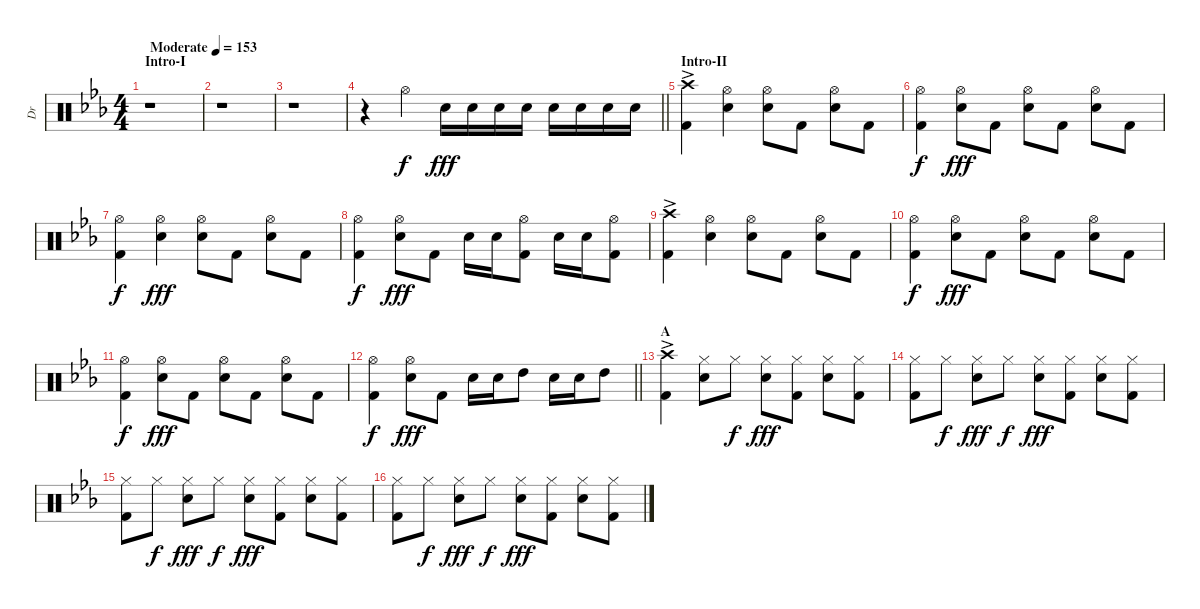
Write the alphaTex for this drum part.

\track ("Dr" "Dr") {instrument percussion}
\staff {score}
\articulation defaults
\ts (4 4)
\section ("" "Intro-I")
\tempo (153 "Moderate")
\clef neutral
\ks cminor
r.1{dy f volume 16} |
r.1 |
r.1 |
\barLineRight lightlight
r.4 "Hi-Hat (open)".4 "Electric Snare (hit)".16{dy fff} "Electric Snare (hit)".16 "Electric Snare (hit)".16 "Electric Snare (hit)".16 "Electric Snare (hit)".16 "Electric Snare (hit)".16 "Electric Snare (hit)".16 "Electric Snare (hit)".16 |
\section ("" "Intro-II")
("Crash high (hit)"{ac} "Kick (hit) 2"{ac}).4 ("Hi-Hat (open)" "Electric Snare (hit)").4 ("Hi-Hat (open)" "Electric Snare (hit)").8 "Kick (hit) 2".8 ("Hi-Hat (open)" "Electric Snare (hit)").8 "Kick (hit) 2".8 |
("Hi-Hat (open)" "Kick (hit) 2").4{dy f} ("Hi-Hat (open)" "Electric Snare (hit)").8{dy fff} "Kick (hit) 2".8 ("Hi-Hat (open)" "Electric Snare (hit)").8 "Kick (hit) 2".8 ("Hi-Hat (open)" "Electric Snare (hit)").8 "Kick (hit) 2".8 |
("Hi-Hat (open)" "Kick (hit) 2").4{dy f} ("Hi-Hat (open)" "Electric Snare (hit)").4{dy fff} ("Hi-Hat (open)" "Electric Snare (hit)").8 "Kick (hit) 2".8 ("Hi-Hat (open)" "Electric Snare (hit)").8 "Kick (hit) 2".8 |
("Hi-Hat (open)" "Kick (hit) 2").4{dy f} ("Hi-Hat (open)" "Electric Snare (hit)").8{dy fff} "Kick (hit) 2".8 "Electric Snare (hit)".16 "Electric Snare (hit)".16 ("Hi-Hat (open)" "Kick (hit) 2").8 "Electric Snare (hit)".16 "Electric Snare (hit)".16 ("Hi-Hat (open)" "Kick (hit) 2").8 |
("Crash high (hit)"{ac} "Kick (hit) 2"{ac}).4 ("Hi-Hat (open)" "Electric Snare (hit)").4 ("Hi-Hat (open)" "Electric Snare (hit)").8 "Kick (hit) 2".8 ("Hi-Hat (open)" "Electric Snare (hit)").8 "Kick (hit) 2".8 |
("Hi-Hat (open)" "Kick (hit) 2").4{dy f} ("Hi-Hat (open)" "Electric Snare (hit)").8{dy fff} "Kick (hit) 2".8 ("Hi-Hat (open)" "Electric Snare (hit)").8 "Kick (hit) 2".8 ("Hi-Hat (open)" "Electric Snare (hit)").8 "Kick (hit) 2".8 |
("Hi-Hat (open)" "Kick (hit) 2").4{dy f} ("Hi-Hat (open)" "Electric Snare (hit)").8{dy fff} "Kick (hit) 2".8 ("Hi-Hat (open)" "Electric Snare (hit)").8 "Kick (hit) 2".8 ("Hi-Hat (open)" "Electric Snare (hit)").8 "Kick (hit) 2".8 |
\barLineRight lightlight
("Hi-Hat (open)" "Kick (hit) 2").4{dy f} ("Hi-Hat (open)" "Electric Snare (hit)").8{dy fff} "Kick (hit) 2".8 "Electric Snare (hit)".16 "Electric Snare (hit)".16 "High Tom (hit)".8 "Electric Snare (hit)".16 "Electric Snare (hit)".16 "High Tom (hit)".8 |
\section ("" "A")
("Crash high (hit)"{ac} "Kick (hit) 2"{ac}).4 ("Hi-Hat (closed)" "Electric Snare (hit)").8 "Hi-Hat (closed)".8{dy f} ("Hi-Hat (closed)" "Electric Snare (hit)").8{dy fff} ("Hi-Hat (closed)" "Kick (hit) 2").8 ("Hi-Hat (closed)" "Electric Snare (hit)").8 ("Hi-Hat (closed)" "Kick (hit) 2").8 |
("Hi-Hat (closed)" "Kick (hit) 2").8 "Hi-Hat (closed)".8{dy f} ("Hi-Hat (closed)" "Electric Snare (hit)").8{dy fff} "Hi-Hat (closed)".8{dy f} ("Hi-Hat (closed)" "Electric Snare (hit)").8{dy fff} ("Hi-Hat (closed)" "Kick (hit) 2").8 ("Hi-Hat (closed)" "Electric Snare (hit)").8 ("Hi-Hat (closed)" "Kick (hit) 2").8 |
("Hi-Hat (closed)" "Kick (hit) 2").8 "Hi-Hat (closed)".8{dy f} ("Hi-Hat (closed)" "Electric Snare (hit)").8{dy fff} "Hi-Hat (closed)".8{dy f} ("Hi-Hat (closed)" "Electric Snare (hit)").8{dy fff} ("Hi-Hat (closed)" "Kick (hit) 2").8 ("Hi-Hat (closed)" "Electric Snare (hit)").8 ("Hi-Hat (closed)" "Kick (hit) 2").8 |
("Hi-Hat (closed)" "Kick (hit) 2").8 "Hi-Hat (closed)".8{dy f} ("Hi-Hat (closed)" "Electric Snare (hit)").8{dy fff} "Hi-Hat (closed)".8{dy f} ("Hi-Hat (closed)" "Electric Snare (hit)").8{dy fff} ("Hi-Hat (closed)" "Kick (hit) 2").8 ("Hi-Hat (closed)" "Electric Snare (hit)").8 ("Hi-Hat (closed)" "Kick (hit) 2").8
